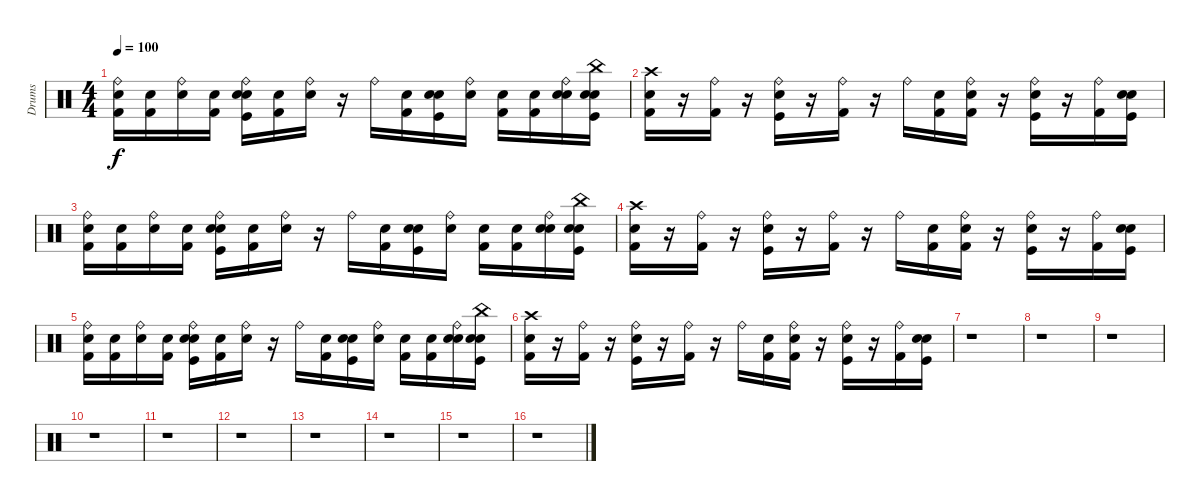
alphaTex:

\track ("Drums" "Drums") {instrument percussion}
\staff {score}
\articulation defaults
\ts (4 4)
\tempo 100
\clef neutral
\ks c
("Snare (hit)" "Kick (hit) 2" "Ride (bell)").16{dy f} ("Snare (hit)" "Kick (hit) 2").16 ("Snare (hit)" "Ride (bell)").16 ("Snare (hit)" "Kick (hit) 2").16 ("Snare (hit)" "Ride (bell)" "Kick (hit)" "Electric Snare (hit)").16 ("Snare (hit)" "Kick (hit) 2").16 ("Snare (hit)" "Ride (bell)").16 r.16 "Ride (bell)".16 ("Snare (hit)" "Kick (hit) 2").16 ("Snare (hit)" "Kick (hit)" "Electric Snare (hit)").16 ("Snare (hit)" "Ride (bell)").16 ("Snare (hit)" "Kick (hit) 2").16 ("Snare (hit)" "Kick (hit) 2").16 ("Snare (hit)" "Snare (hit) 2" "Ride (bell)").16 ("Snare (hit)" "Kick (hit)" "Electric Snare (hit)" "China (hit)").16 |
("Snare (hit)" "Kick (hit) 2" "Crash high (hit)").16 r.16 ("Ride (bell)" "Kick (hit) 2").16 r.16 ("Ride (bell)" "Kick (hit)" "Electric Snare (hit)").16 r.16 ("Ride (bell)" "Kick (hit) 2").16 r.16 "Ride (bell)".16 ("Snare (hit)" "Kick (hit) 2").16 ("Snare (hit)" "Kick (hit) 2" "Ride (bell)").16 r.16 ("Ride (bell)" "Kick (hit)" "Electric Snare (hit)").16 r.16 ("Ride (bell)" "Kick (hit) 2").16 ("Snare (hit)" "Kick (hit)" "Electric Snare (hit)").16 |
("Snare (hit)" "Kick (hit) 2" "Ride (bell)").16 ("Snare (hit)" "Kick (hit) 2").16 ("Snare (hit)" "Ride (bell)").16 ("Snare (hit)" "Kick (hit) 2").16 ("Snare (hit)" "Ride (bell)" "Kick (hit)" "Electric Snare (hit)").16 ("Snare (hit)" "Kick (hit) 2").16 ("Snare (hit)" "Ride (bell)").16 r.16 "Ride (bell)".16 ("Snare (hit)" "Kick (hit) 2").16 ("Snare (hit)" "Kick (hit)" "Electric Snare (hit)").16 ("Snare (hit)" "Ride (bell)").16 ("Snare (hit)" "Kick (hit) 2").16 ("Snare (hit)" "Kick (hit) 2").16 ("Snare (hit)" "Snare (hit) 2" "Ride (bell)").16 ("Snare (hit)" "Kick (hit)" "Electric Snare (hit)" "China (hit)").16 |
("Snare (hit)" "Kick (hit) 2" "Crash high (hit)").16 r.16 ("Ride (bell)" "Kick (hit) 2").16 r.16 ("Ride (bell)" "Kick (hit)" "Electric Snare (hit)").16 r.16 ("Ride (bell)" "Kick (hit) 2").16 r.16 "Ride (bell)".16 ("Snare (hit)" "Kick (hit) 2").16 ("Snare (hit)" "Kick (hit) 2" "Ride (bell)").16 r.16 ("Ride (bell)" "Kick (hit)" "Electric Snare (hit)").16 r.16 ("Ride (bell)" "Kick (hit) 2").16 ("Snare (hit)" "Kick (hit)" "Electric Snare (hit)").16 |
("Snare (hit)" "Kick (hit) 2" "Ride (bell)").16 ("Snare (hit)" "Kick (hit) 2").16 ("Snare (hit)" "Ride (bell)").16 ("Snare (hit)" "Kick (hit) 2").16 ("Snare (hit)" "Ride (bell)" "Kick (hit)" "Electric Snare (hit)").16 ("Snare (hit)" "Kick (hit) 2").16 ("Snare (hit)" "Ride (bell)").16 r.16 "Ride (bell)".16 ("Snare (hit)" "Kick (hit) 2").16 ("Snare (hit)" "Kick (hit)" "Electric Snare (hit)").16 ("Snare (hit)" "Ride (bell)").16 ("Snare (hit)" "Kick (hit) 2").16 ("Snare (hit)" "Kick (hit) 2").16 ("Snare (hit)" "Snare (hit) 2" "Ride (bell)").16 ("Snare (hit)" "Kick (hit)" "Electric Snare (hit)" "China (hit)").16 |
("Snare (hit)" "Kick (hit) 2" "Crash high (hit)").16 r.16 ("Ride (bell)" "Kick (hit) 2").16 r.16 ("Ride (bell)" "Kick (hit)" "Electric Snare (hit)").16 r.16 ("Ride (bell)" "Kick (hit) 2").16 r.16 "Ride (bell)".16 ("Snare (hit)" "Kick (hit) 2").16 ("Snare (hit)" "Kick (hit) 2" "Ride (bell)").16 r.16 ("Ride (bell)" "Kick (hit)" "Electric Snare (hit)").16 r.16 ("Ride (bell)" "Kick (hit) 2").16 ("Snare (hit)" "Kick (hit)" "Electric Snare (hit)").16 |
r.1 |
r.1 |
r.1 |
r.1 |
r.1 |
r.1 |
r.1 |
r.1 |
r.1 |
r.1
